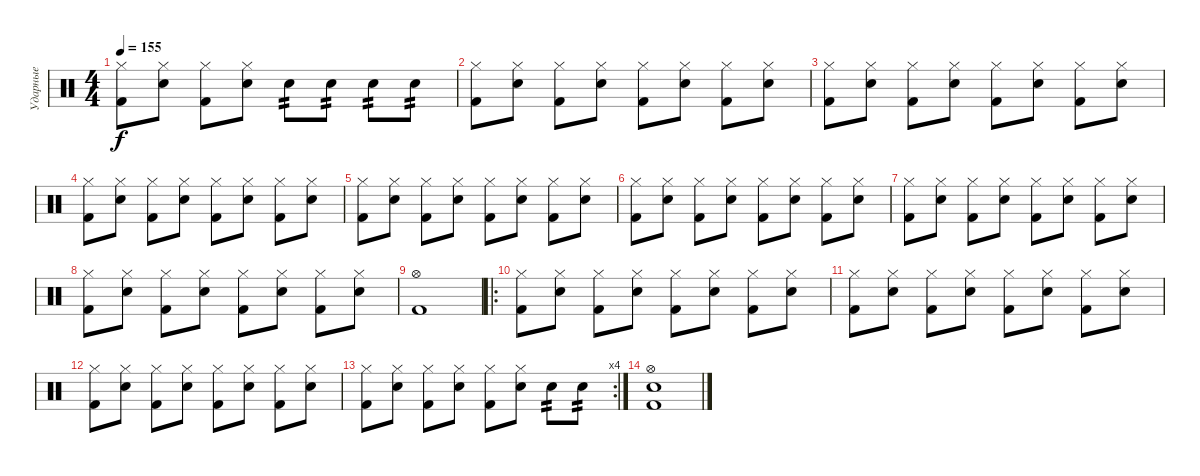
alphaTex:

\track ("Ударные" "Ударные") {instrument percussion}
\staff {score}
\articulation defaults
\ts (4 4)
\tempo 155
\clef neutral
\ks c
("Hi-Hat (closed)" "Kick (hit) 2").8{dy f} ("Hi-Hat (closed)" "Electric Snare (hit)").8 ("Hi-Hat (closed)" "Kick (hit) 2").8 ("Hi-Hat (closed)" "Electric Snare (hit)").8 "Electric Snare (hit)".8{tp 2} "Electric Snare (hit)".8{tp 2} "Electric Snare (hit)".8{tp 2} "Electric Snare (hit)".8{tp 2} |
("Hi-Hat (closed)" "Kick (hit) 2").8 ("Hi-Hat (closed)" "Electric Snare (hit)").8 ("Hi-Hat (closed)" "Kick (hit) 2").8 ("Hi-Hat (closed)" "Electric Snare (hit)").8 ("Hi-Hat (closed)" "Kick (hit) 2").8 ("Hi-Hat (closed)" "Electric Snare (hit)").8 ("Hi-Hat (closed)" "Kick (hit) 2").8 ("Hi-Hat (closed)" "Electric Snare (hit)").8 |
("Hi-Hat (closed)" "Kick (hit) 2").8 ("Hi-Hat (closed)" "Electric Snare (hit)").8 ("Hi-Hat (closed)" "Kick (hit) 2").8 ("Hi-Hat (closed)" "Electric Snare (hit)").8 ("Hi-Hat (closed)" "Kick (hit) 2").8 ("Hi-Hat (closed)" "Electric Snare (hit)").8 ("Hi-Hat (closed)" "Kick (hit) 2").8 ("Hi-Hat (closed)" "Electric Snare (hit)").8 |
("Hi-Hat (closed)" "Kick (hit) 2").8 ("Hi-Hat (closed)" "Electric Snare (hit)").8 ("Hi-Hat (closed)" "Kick (hit) 2").8 ("Hi-Hat (closed)" "Electric Snare (hit)").8 ("Hi-Hat (closed)" "Kick (hit) 2").8 ("Hi-Hat (closed)" "Electric Snare (hit)").8 ("Hi-Hat (closed)" "Kick (hit) 2").8 ("Hi-Hat (closed)" "Electric Snare (hit)").8 |
("Hi-Hat (closed)" "Kick (hit) 2").8 ("Hi-Hat (closed)" "Electric Snare (hit)").8 ("Hi-Hat (closed)" "Kick (hit) 2").8 ("Hi-Hat (closed)" "Electric Snare (hit)").8 ("Hi-Hat (closed)" "Kick (hit) 2").8 ("Hi-Hat (closed)" "Electric Snare (hit)").8 ("Hi-Hat (closed)" "Kick (hit) 2").8 ("Hi-Hat (closed)" "Electric Snare (hit)").8 |
("Hi-Hat (closed)" "Kick (hit) 2").8 ("Hi-Hat (closed)" "Electric Snare (hit)").8 ("Hi-Hat (closed)" "Kick (hit) 2").8 ("Hi-Hat (closed)" "Electric Snare (hit)").8 ("Hi-Hat (closed)" "Kick (hit) 2").8 ("Hi-Hat (closed)" "Electric Snare (hit)").8 ("Hi-Hat (closed)" "Kick (hit) 2").8 ("Hi-Hat (closed)" "Electric Snare (hit)").8 |
("Hi-Hat (closed)" "Kick (hit) 2").8 ("Hi-Hat (closed)" "Electric Snare (hit)").8 ("Hi-Hat (closed)" "Kick (hit) 2").8 ("Hi-Hat (closed)" "Electric Snare (hit)").8 ("Hi-Hat (closed)" "Kick (hit) 2").8 ("Hi-Hat (closed)" "Electric Snare (hit)").8 ("Hi-Hat (closed)" "Kick (hit) 2").8 ("Hi-Hat (closed)" "Electric Snare (hit)").8 |
("Hi-Hat (closed)" "Kick (hit) 2").8 ("Hi-Hat (closed)" "Electric Snare (hit)").8 ("Hi-Hat (closed)" "Kick (hit) 2").8 ("Hi-Hat (closed)" "Electric Snare (hit)").8 ("Hi-Hat (closed)" "Kick (hit) 2").8 ("Hi-Hat (closed)" "Electric Snare (hit)").8 ("Hi-Hat (closed)" "Kick (hit) 2").8 ("Hi-Hat (closed)" "Electric Snare (hit)").8 |
("Hi-Hat (open)" "Kick (hit) 2").1 |
\ro
("Hi-Hat (closed)" "Kick (hit) 2").8 ("Hi-Hat (closed)" "Electric Snare (hit)").8 ("Hi-Hat (closed)" "Kick (hit) 2").8 ("Hi-Hat (closed)" "Electric Snare (hit)").8 ("Hi-Hat (closed)" "Kick (hit) 2").8 ("Hi-Hat (closed)" "Electric Snare (hit)").8 ("Hi-Hat (closed)" "Kick (hit) 2").8 ("Hi-Hat (closed)" "Electric Snare (hit)").8 |
("Hi-Hat (closed)" "Kick (hit) 2").8 ("Hi-Hat (closed)" "Electric Snare (hit)").8 ("Hi-Hat (closed)" "Kick (hit) 2").8 ("Hi-Hat (closed)" "Electric Snare (hit)").8 ("Hi-Hat (closed)" "Kick (hit) 2").8 ("Hi-Hat (closed)" "Electric Snare (hit)").8 ("Hi-Hat (closed)" "Kick (hit) 2").8 ("Hi-Hat (closed)" "Electric Snare (hit)").8 |
("Hi-Hat (closed)" "Kick (hit) 2").8 ("Hi-Hat (closed)" "Electric Snare (hit)").8 ("Hi-Hat (closed)" "Kick (hit) 2").8 ("Hi-Hat (closed)" "Electric Snare (hit)").8 ("Hi-Hat (closed)" "Kick (hit) 2").8 ("Hi-Hat (closed)" "Electric Snare (hit)").8 ("Hi-Hat (closed)" "Kick (hit) 2").8 ("Hi-Hat (closed)" "Electric Snare (hit)").8 |
\rc 4
("Hi-Hat (closed)" "Kick (hit) 2").8 ("Hi-Hat (closed)" "Electric Snare (hit)").8 ("Hi-Hat (closed)" "Kick (hit) 2").8 ("Hi-Hat (closed)" "Electric Snare (hit)").8 ("Hi-Hat (closed)" "Kick (hit) 2").8 ("Hi-Hat (closed)" "Electric Snare (hit)").8 "Electric Snare (hit)".8{tp 2} "Electric Snare (hit)".8{tp 2} |
("Hi-Hat (open)" "Electric Snare (hit)" "Kick (hit) 2").1
